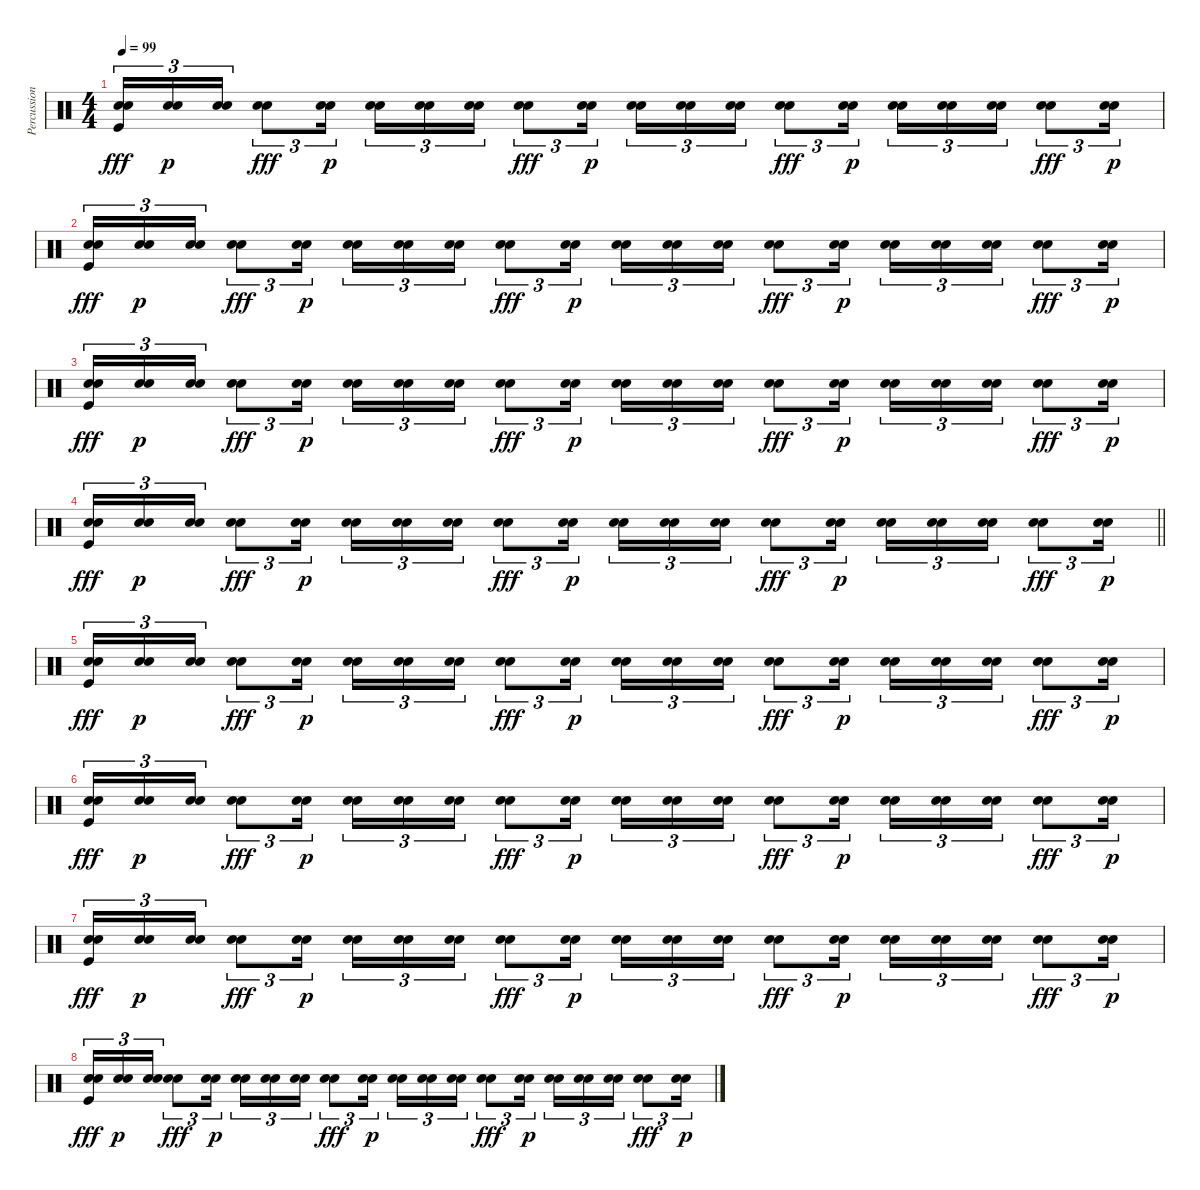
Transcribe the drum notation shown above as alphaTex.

\track ("Percussion" "Percussion") {instrument percussion}
\staff {score}
\articulation defaults
\ts (4 4)
\tempo 99
\clef neutral
\ks c
("Snare (hit) 2" "Electric Snare (hit)" "Kick (hit)").16{tu (3 2) dy fff} ("Snare (hit) 2" "Electric Snare (hit)").16{tu (3 2) dy p} ("Snare (hit) 2" "Electric Snare (hit)").16{tu (3 2)} ("Snare (hit) 2" "Electric Snare (hit)").8{tu (3 2) dy fff} ("Snare (hit) 2" "Electric Snare (hit)").16{tu (3 2) dy p} ("Snare (hit) 2" "Electric Snare (hit)").16{tu (3 2)} ("Snare (hit) 2" "Electric Snare (hit)").16{tu (3 2)} ("Snare (hit) 2" "Electric Snare (hit)").16{tu (3 2)} ("Snare (hit) 2" "Electric Snare (hit)").8{tu (3 2) dy fff} ("Snare (hit) 2" "Electric Snare (hit)").16{tu (3 2) dy p} ("Snare (hit) 2" "Electric Snare (hit)").16{tu (3 2)} ("Snare (hit) 2" "Electric Snare (hit)").16{tu (3 2)} ("Snare (hit) 2" "Electric Snare (hit)").16{tu (3 2)} ("Snare (hit) 2" "Electric Snare (hit)").8{tu (3 2) dy fff} ("Snare (hit) 2" "Electric Snare (hit)").16{tu (3 2) dy p} ("Snare (hit) 2" "Electric Snare (hit)").16{tu (3 2)} ("Snare (hit) 2" "Electric Snare (hit)").16{tu (3 2)} ("Snare (hit) 2" "Electric Snare (hit)").16{tu (3 2)} ("Snare (hit) 2" "Electric Snare (hit)").8{tu (3 2) dy fff} ("Snare (hit) 2" "Electric Snare (hit)").16{tu (3 2) dy p} |
("Snare (hit) 2" "Electric Snare (hit)" "Kick (hit)").16{tu (3 2) dy fff} ("Snare (hit) 2" "Electric Snare (hit)").16{tu (3 2) dy p} ("Snare (hit) 2" "Electric Snare (hit)").16{tu (3 2)} ("Snare (hit) 2" "Electric Snare (hit)").8{tu (3 2) dy fff} ("Snare (hit) 2" "Electric Snare (hit)").16{tu (3 2) dy p} ("Snare (hit) 2" "Electric Snare (hit)").16{tu (3 2)} ("Snare (hit) 2" "Electric Snare (hit)").16{tu (3 2)} ("Snare (hit) 2" "Electric Snare (hit)").16{tu (3 2)} ("Snare (hit) 2" "Electric Snare (hit)").8{tu (3 2) dy fff} ("Snare (hit) 2" "Electric Snare (hit)").16{tu (3 2) dy p} ("Snare (hit) 2" "Electric Snare (hit)").16{tu (3 2)} ("Snare (hit) 2" "Electric Snare (hit)").16{tu (3 2)} ("Snare (hit) 2" "Electric Snare (hit)").16{tu (3 2)} ("Snare (hit) 2" "Electric Snare (hit)").8{tu (3 2) dy fff} ("Snare (hit) 2" "Electric Snare (hit)").16{tu (3 2) dy p} ("Snare (hit) 2" "Electric Snare (hit)").16{tu (3 2)} ("Snare (hit) 2" "Electric Snare (hit)").16{tu (3 2)} ("Snare (hit) 2" "Electric Snare (hit)").16{tu (3 2)} ("Snare (hit) 2" "Electric Snare (hit)").8{tu (3 2) dy fff} ("Snare (hit) 2" "Electric Snare (hit)").16{tu (3 2) dy p} |
("Snare (hit) 2" "Electric Snare (hit)" "Kick (hit)").16{tu (3 2) dy fff} ("Snare (hit) 2" "Electric Snare (hit)").16{tu (3 2) dy p} ("Snare (hit) 2" "Electric Snare (hit)").16{tu (3 2)} ("Snare (hit) 2" "Electric Snare (hit)").8{tu (3 2) dy fff} ("Snare (hit) 2" "Electric Snare (hit)").16{tu (3 2) dy p} ("Snare (hit) 2" "Electric Snare (hit)").16{tu (3 2)} ("Snare (hit) 2" "Electric Snare (hit)").16{tu (3 2)} ("Snare (hit) 2" "Electric Snare (hit)").16{tu (3 2)} ("Snare (hit) 2" "Electric Snare (hit)").8{tu (3 2) dy fff} ("Snare (hit) 2" "Electric Snare (hit)").16{tu (3 2) dy p} ("Snare (hit) 2" "Electric Snare (hit)").16{tu (3 2)} ("Snare (hit) 2" "Electric Snare (hit)").16{tu (3 2)} ("Snare (hit) 2" "Electric Snare (hit)").16{tu (3 2)} ("Snare (hit) 2" "Electric Snare (hit)").8{tu (3 2) dy fff} ("Snare (hit) 2" "Electric Snare (hit)").16{tu (3 2) dy p} ("Snare (hit) 2" "Electric Snare (hit)").16{tu (3 2)} ("Snare (hit) 2" "Electric Snare (hit)").16{tu (3 2)} ("Snare (hit) 2" "Electric Snare (hit)").16{tu (3 2)} ("Snare (hit) 2" "Electric Snare (hit)").8{tu (3 2) dy fff} ("Snare (hit) 2" "Electric Snare (hit)").16{tu (3 2) dy p} |
\barLineRight lightlight
("Snare (hit) 2" "Electric Snare (hit)" "Kick (hit)").16{tu (3 2) dy fff} ("Snare (hit) 2" "Electric Snare (hit)").16{tu (3 2) dy p} ("Snare (hit) 2" "Electric Snare (hit)").16{tu (3 2)} ("Snare (hit) 2" "Electric Snare (hit)").8{tu (3 2) dy fff} ("Snare (hit) 2" "Electric Snare (hit)").16{tu (3 2) dy p} ("Snare (hit) 2" "Electric Snare (hit)").16{tu (3 2)} ("Snare (hit) 2" "Electric Snare (hit)").16{tu (3 2)} ("Snare (hit) 2" "Electric Snare (hit)").16{tu (3 2)} ("Snare (hit) 2" "Electric Snare (hit)").8{tu (3 2) dy fff} ("Snare (hit) 2" "Electric Snare (hit)").16{tu (3 2) dy p} ("Snare (hit) 2" "Electric Snare (hit)").16{tu (3 2)} ("Snare (hit) 2" "Electric Snare (hit)").16{tu (3 2)} ("Snare (hit) 2" "Electric Snare (hit)").16{tu (3 2)} ("Snare (hit) 2" "Electric Snare (hit)").8{tu (3 2) dy fff} ("Snare (hit) 2" "Electric Snare (hit)").16{tu (3 2) dy p} ("Snare (hit) 2" "Electric Snare (hit)").16{tu (3 2)} ("Snare (hit) 2" "Electric Snare (hit)").16{tu (3 2)} ("Snare (hit) 2" "Electric Snare (hit)").16{tu (3 2)} ("Snare (hit) 2" "Electric Snare (hit)").8{tu (3 2) dy fff} ("Snare (hit) 2" "Electric Snare (hit)").16{tu (3 2) dy p} |
("Snare (hit) 2" "Electric Snare (hit)" "Kick (hit)").16{tu (3 2) dy fff} ("Snare (hit) 2" "Electric Snare (hit)").16{tu (3 2) dy p} ("Snare (hit) 2" "Electric Snare (hit)").16{tu (3 2)} ("Snare (hit) 2" "Electric Snare (hit)").8{tu (3 2) dy fff} ("Snare (hit) 2" "Electric Snare (hit)").16{tu (3 2) dy p} ("Snare (hit) 2" "Electric Snare (hit)").16{tu (3 2)} ("Snare (hit) 2" "Electric Snare (hit)").16{tu (3 2)} ("Snare (hit) 2" "Electric Snare (hit)").16{tu (3 2)} ("Snare (hit) 2" "Electric Snare (hit)").8{tu (3 2) dy fff} ("Snare (hit) 2" "Electric Snare (hit)").16{tu (3 2) dy p} ("Snare (hit) 2" "Electric Snare (hit)").16{tu (3 2)} ("Snare (hit) 2" "Electric Snare (hit)").16{tu (3 2)} ("Snare (hit) 2" "Electric Snare (hit)").16{tu (3 2)} ("Snare (hit) 2" "Electric Snare (hit)").8{tu (3 2) dy fff} ("Snare (hit) 2" "Electric Snare (hit)").16{tu (3 2) dy p} ("Snare (hit) 2" "Electric Snare (hit)").16{tu (3 2)} ("Snare (hit) 2" "Electric Snare (hit)").16{tu (3 2)} ("Snare (hit) 2" "Electric Snare (hit)").16{tu (3 2)} ("Snare (hit) 2" "Electric Snare (hit)").8{tu (3 2) dy fff} ("Snare (hit) 2" "Electric Snare (hit)").16{tu (3 2) dy p} |
("Snare (hit) 2" "Electric Snare (hit)" "Kick (hit)").16{tu (3 2) dy fff} ("Snare (hit) 2" "Electric Snare (hit)").16{tu (3 2) dy p} ("Snare (hit) 2" "Electric Snare (hit)").16{tu (3 2)} ("Snare (hit) 2" "Electric Snare (hit)").8{tu (3 2) dy fff} ("Snare (hit) 2" "Electric Snare (hit)").16{tu (3 2) dy p} ("Snare (hit) 2" "Electric Snare (hit)").16{tu (3 2)} ("Snare (hit) 2" "Electric Snare (hit)").16{tu (3 2)} ("Snare (hit) 2" "Electric Snare (hit)").16{tu (3 2)} ("Snare (hit) 2" "Electric Snare (hit)").8{tu (3 2) dy fff} ("Snare (hit) 2" "Electric Snare (hit)").16{tu (3 2) dy p} ("Snare (hit) 2" "Electric Snare (hit)").16{tu (3 2)} ("Snare (hit) 2" "Electric Snare (hit)").16{tu (3 2)} ("Snare (hit) 2" "Electric Snare (hit)").16{tu (3 2)} ("Snare (hit) 2" "Electric Snare (hit)").8{tu (3 2) dy fff} ("Snare (hit) 2" "Electric Snare (hit)").16{tu (3 2) dy p} ("Snare (hit) 2" "Electric Snare (hit)").16{tu (3 2)} ("Snare (hit) 2" "Electric Snare (hit)").16{tu (3 2)} ("Snare (hit) 2" "Electric Snare (hit)").16{tu (3 2)} ("Snare (hit) 2" "Electric Snare (hit)").8{tu (3 2) dy fff} ("Snare (hit) 2" "Electric Snare (hit)").16{tu (3 2) dy p} |
("Snare (hit) 2" "Electric Snare (hit)" "Kick (hit)").16{tu (3 2) dy fff} ("Snare (hit) 2" "Electric Snare (hit)").16{tu (3 2) dy p} ("Snare (hit) 2" "Electric Snare (hit)").16{tu (3 2)} ("Snare (hit) 2" "Electric Snare (hit)").8{tu (3 2) dy fff} ("Snare (hit) 2" "Electric Snare (hit)").16{tu (3 2) dy p} ("Snare (hit) 2" "Electric Snare (hit)").16{tu (3 2)} ("Snare (hit) 2" "Electric Snare (hit)").16{tu (3 2)} ("Snare (hit) 2" "Electric Snare (hit)").16{tu (3 2)} ("Snare (hit) 2" "Electric Snare (hit)").8{tu (3 2) dy fff} ("Snare (hit) 2" "Electric Snare (hit)").16{tu (3 2) dy p} ("Snare (hit) 2" "Electric Snare (hit)").16{tu (3 2)} ("Snare (hit) 2" "Electric Snare (hit)").16{tu (3 2)} ("Snare (hit) 2" "Electric Snare (hit)").16{tu (3 2)} ("Snare (hit) 2" "Electric Snare (hit)").8{tu (3 2) dy fff} ("Snare (hit) 2" "Electric Snare (hit)").16{tu (3 2) dy p} ("Snare (hit) 2" "Electric Snare (hit)").16{tu (3 2)} ("Snare (hit) 2" "Electric Snare (hit)").16{tu (3 2)} ("Snare (hit) 2" "Electric Snare (hit)").16{tu (3 2)} ("Snare (hit) 2" "Electric Snare (hit)").8{tu (3 2) dy fff} ("Snare (hit) 2" "Electric Snare (hit)").16{tu (3 2) dy p} |
("Snare (hit) 2" "Electric Snare (hit)" "Kick (hit)").16{tu (3 2) dy fff} ("Snare (hit) 2" "Electric Snare (hit)").16{tu (3 2) dy p} ("Snare (hit) 2" "Electric Snare (hit)").16{tu (3 2)} ("Snare (hit) 2" "Electric Snare (hit)").8{tu (3 2) dy fff} ("Snare (hit) 2" "Electric Snare (hit)").16{tu (3 2) dy p} ("Snare (hit) 2" "Electric Snare (hit)").16{tu (3 2)} ("Snare (hit) 2" "Electric Snare (hit)").16{tu (3 2)} ("Snare (hit) 2" "Electric Snare (hit)").16{tu (3 2)} ("Snare (hit) 2" "Electric Snare (hit)").8{tu (3 2) dy fff} ("Snare (hit) 2" "Electric Snare (hit)").16{tu (3 2) dy p} ("Snare (hit) 2" "Electric Snare (hit)").16{tu (3 2)} ("Snare (hit) 2" "Electric Snare (hit)").16{tu (3 2)} ("Snare (hit) 2" "Electric Snare (hit)").16{tu (3 2)} ("Snare (hit) 2" "Electric Snare (hit)").8{tu (3 2) dy fff} ("Snare (hit) 2" "Electric Snare (hit)").16{tu (3 2) dy p} ("Snare (hit) 2" "Electric Snare (hit)").16{tu (3 2)} ("Snare (hit) 2" "Electric Snare (hit)").16{tu (3 2)} ("Snare (hit) 2" "Electric Snare (hit)").16{tu (3 2)} ("Snare (hit) 2" "Electric Snare (hit)").8{tu (3 2) dy fff} ("Snare (hit) 2" "Electric Snare (hit)").16{tu (3 2) dy p}
